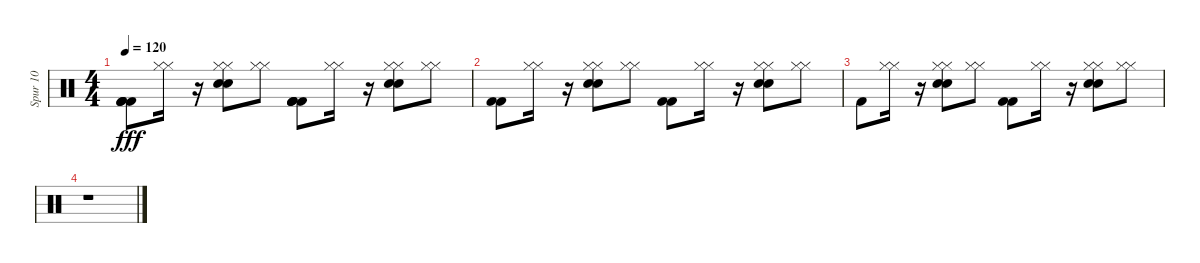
\track ("Spur 10" "Spur 10") {instrument percussion}
\staff {score}
\articulation defaults
\ts (4 4)
\tempo 120
\clef neutral
\ks c
("Kick (hit) 2" "Kick (hit) 2" "Kick (hit) 2" "Kick (hit) 2").8{dy fff} ("Hi-Hat (closed)" "Hi-Hat (closed)").16 r.16 ("Hi-Hat (closed)" "Snare (hit) 2" "Hi-Hat (closed)" "Snare (hit) 2").8 ("Hi-Hat (closed)" "Hi-Hat (closed)").8 ("Kick (hit) 2" "Kick (hit) 2" "Kick (hit) 2" "Kick (hit) 2").8 ("Hi-Hat (closed)" "Hi-Hat (closed)").16 r.16 ("Snare (hit) 2" "Hi-Hat (closed)" "Snare (hit) 2" "Hi-Hat (closed)").8 ("Hi-Hat (closed)" "Hi-Hat (closed)").8 |
("Kick (hit) 2" "Kick (hit) 2").8 ("Hi-Hat (closed)" "Hi-Hat (closed)").16 r.16 ("Snare (hit) 2" "Hi-Hat (closed)" "Snare (hit) 2" "Hi-Hat (closed)").8 ("Hi-Hat (closed)" "Hi-Hat (closed)").8 ("Kick (hit) 2" "Kick (hit) 2").8 ("Hi-Hat (closed)" "Hi-Hat (closed)").16 r.16 ("Snare (hit) 2" "Snare (hit) 2" "Hi-Hat (closed)" "Hi-Hat (closed)").8 ("Hi-Hat (closed)" "Hi-Hat (closed)").8 |
"Kick (hit) 2".8 ("Hi-Hat (closed)" "Hi-Hat (closed)").16 r.16 ("Snare (hit) 2" "Hi-Hat (closed)" "Snare (hit) 2" "Hi-Hat (closed)").8 ("Hi-Hat (closed)" "Hi-Hat (closed)").8 ("Kick (hit) 2" "Kick (hit) 2").8 ("Hi-Hat (closed)" "Hi-Hat (closed)").16 r.16 ("Snare (hit) 2" "Snare (hit) 2" "Hi-Hat (closed)" "Hi-Hat (closed)").8 ("Hi-Hat (closed)" "Hi-Hat (closed)").8 |
r.1
